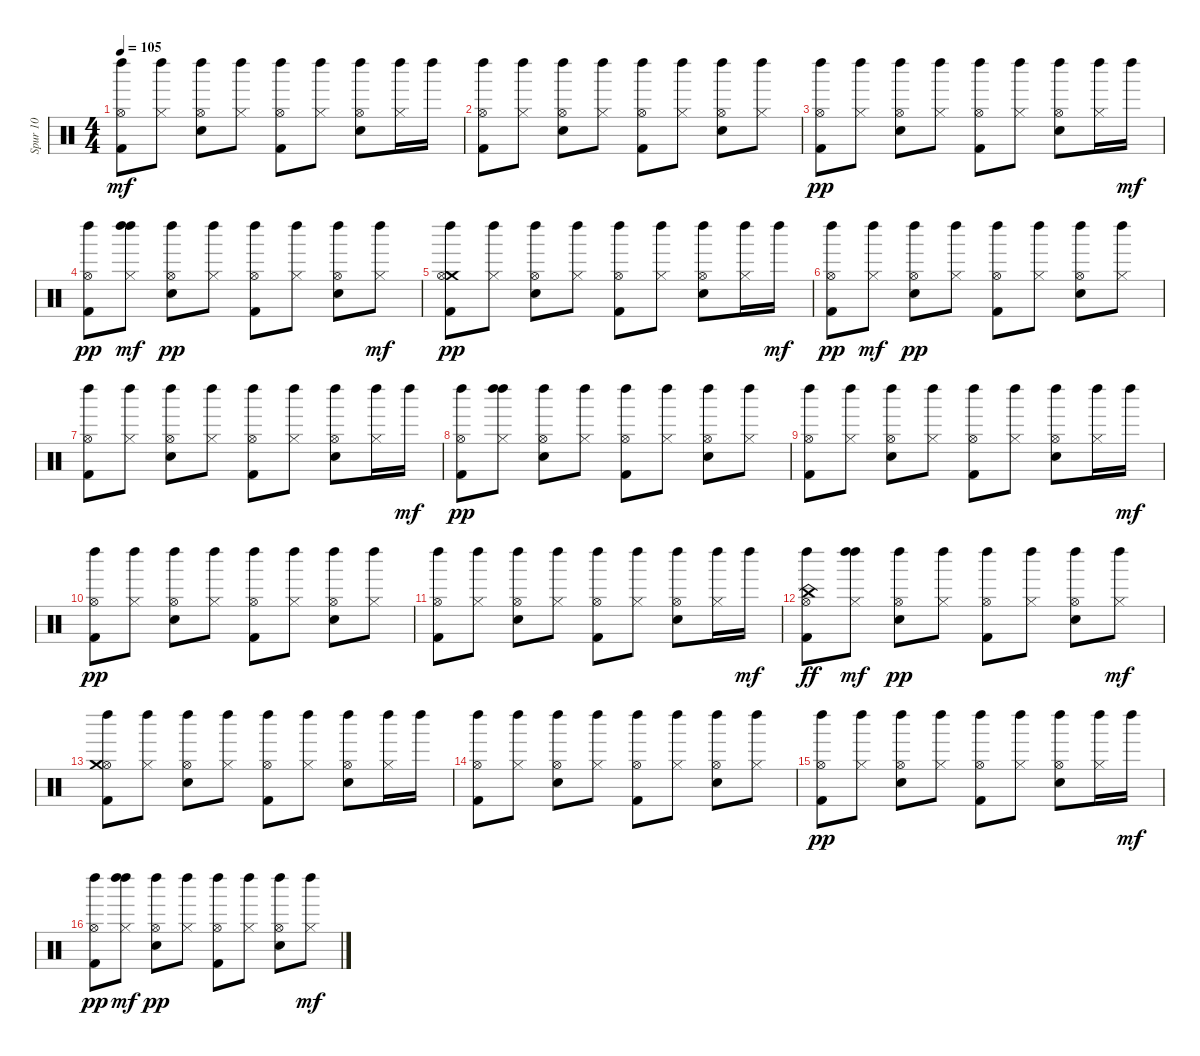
\track ("Spur 10" "Spur 10") {instrument percussion}
\staff {score}
\articulation defaults
\ts (4 4)
\tempo 105
\clef neutral
\ks c
("Hi-Hat (open)" "Left Maraca (hit)" "Kick (hit) 2").8{dy mf} ("Hi-Hat (closed)" "Left Maraca (hit)").8 ("Hi-Hat (open)" "Left Maraca (hit)" "Snare (hit) 2").8 ("Hi-Hat (closed)" "Left Maraca (hit)").8 ("Hi-Hat (open)" "Left Maraca (hit)" "Kick (hit) 2").8 ("Hi-Hat (closed)" "Left Maraca (hit)").8 ("Hi-Hat (open)" "Left Maraca (hit)" "Snare (hit) 2").8 ("Hi-Hat (closed)" "Left Maraca (hit)").16 "Left Maraca (hit)".16 |
("Hi-Hat (open)" "Left Maraca (hit)" "Kick (hit) 2").8 ("Hi-Hat (closed)" "Left Maraca (hit)").8 ("Hi-Hat (open)" "Left Maraca (hit)" "Snare (hit) 2").8 ("Hi-Hat (closed)" "Left Maraca (hit)").8 ("Hi-Hat (open)" "Left Maraca (hit)" "Kick (hit) 2").8 ("Hi-Hat (closed)" "Left Maraca (hit)").8 ("Hi-Hat (open)" "Left Maraca (hit)" "Snare (hit) 2").8 ("Hi-Hat (closed)" "Left Maraca (hit)").8 |
("Left Maraca (hit)" "Hi-Hat (open)" "Kick (hit) 2").8{dy pp} ("Left Maraca (hit)" "Hi-Hat (closed)").8 ("Left Maraca (hit)" "Hi-Hat (open)" "Snare (hit) 2").8 ("Left Maraca (hit)" "Hi-Hat (closed)").8 ("Left Maraca (hit)" "Hi-Hat (open)" "Kick (hit) 2").8 ("Left Maraca (hit)" "Hi-Hat (closed)").8 ("Left Maraca (hit)" "Hi-Hat (open)" "Snare (hit) 2").8 ("Left Maraca (hit)" "Hi-Hat (closed)").16 "Left Maraca (hit)".16{dy mf} |
("Left Maraca (hit)" "Hi-Hat (open)" "Kick (hit) 2").8{dy pp} ("Left Maraca (hit)" "Hi-Hat (closed)" "Left Maraca (hit)").8{dy mf} ("Left Maraca (hit)" "Hi-Hat (open)" "Snare (hit) 2").8{dy pp} ("Left Maraca (hit)" "Hi-Hat (closed)").8 ("Left Maraca (hit)" "Hi-Hat (open)" "Kick (hit) 2").8 ("Left Maraca (hit)" "Hi-Hat (closed)").8 ("Left Maraca (hit)" "Hi-Hat (open)" "Snare (hit) 2").8 ("Hi-Hat (closed)" "Left Maraca (hit)").8{dy mf} |
("Left Maraca (hit)" "Crash medium (hit)" "Hi-Hat (open)" "Kick (hit) 2").8{dy pp} ("Left Maraca (hit)" "Hi-Hat (closed)").8 ("Left Maraca (hit)" "Hi-Hat (open)" "Snare (hit) 2").8 ("Left Maraca (hit)" "Hi-Hat (closed)").8 ("Left Maraca (hit)" "Hi-Hat (open)" "Kick (hit) 2").8 ("Left Maraca (hit)" "Hi-Hat (closed)").8 ("Left Maraca (hit)" "Hi-Hat (open)" "Snare (hit) 2").8 ("Left Maraca (hit)" "Hi-Hat (closed)").16 "Left Maraca (hit)".16{dy mf} |
("Left Maraca (hit)" "Hi-Hat (open)" "Kick (hit) 2").8{dy pp} ("Hi-Hat (closed)" "Left Maraca (hit)").8{dy mf} ("Left Maraca (hit)" "Hi-Hat (open)" "Snare (hit) 2").8{dy pp} ("Left Maraca (hit)" "Hi-Hat (closed)").8 ("Left Maraca (hit)" "Hi-Hat (open)" "Kick (hit) 2").8 ("Left Maraca (hit)" "Hi-Hat (closed)").8 ("Left Maraca (hit)" "Hi-Hat (open)" "Snare (hit) 2").8 ("Left Maraca (hit)" "Hi-Hat (closed)").8 |
("Left Maraca (hit)" "Kick (hit) 2" "Hi-Hat (open)").8 ("Left Maraca (hit)" "Hi-Hat (closed)").8 ("Left Maraca (hit)" "Snare (hit) 2" "Hi-Hat (open)").8 ("Left Maraca (hit)" "Hi-Hat (closed)").8 ("Left Maraca (hit)" "Kick (hit) 2" "Hi-Hat (open)").8 ("Left Maraca (hit)" "Hi-Hat (closed)").8 ("Left Maraca (hit)" "Snare (hit) 2" "Hi-Hat (open)").8 ("Left Maraca (hit)" "Hi-Hat (closed)").16 "Left Maraca (hit)".16{dy mf} |
("Left Maraca (hit)" "Kick (hit) 2" "Hi-Hat (open)").8{dy pp} ("Left Maraca (hit)" "Left Maraca (hit)" "Hi-Hat (closed)").8 ("Left Maraca (hit)" "Snare (hit) 2" "Hi-Hat (open)").8 ("Left Maraca (hit)" "Hi-Hat (closed)").8 ("Left Maraca (hit)" "Kick (hit) 2" "Hi-Hat (open)").8 ("Left Maraca (hit)" "Hi-Hat (closed)").8 ("Left Maraca (hit)" "Snare (hit) 2" "Hi-Hat (open)").8 ("Left Maraca (hit)" "Hi-Hat (closed)").8 |
("Left Maraca (hit)" "Kick (hit) 2" "Hi-Hat (open)").8 ("Left Maraca (hit)" "Hi-Hat (closed)").8 ("Left Maraca (hit)" "Snare (hit) 2" "Hi-Hat (open)").8 ("Left Maraca (hit)" "Hi-Hat (closed)").8 ("Left Maraca (hit)" "Kick (hit) 2" "Hi-Hat (open)").8 ("Left Maraca (hit)" "Hi-Hat (closed)").8 ("Left Maraca (hit)" "Snare (hit) 2" "Hi-Hat (open)").8 ("Left Maraca (hit)" "Hi-Hat (closed)").16 "Left Maraca (hit)".16{dy mf} |
("Left Maraca (hit)" "Kick (hit) 2" "Hi-Hat (open)").8{dy pp} ("Left Maraca (hit)" "Hi-Hat (closed)").8 ("Left Maraca (hit)" "Snare (hit) 2" "Hi-Hat (open)").8 ("Left Maraca (hit)" "Hi-Hat (closed)").8 ("Left Maraca (hit)" "Kick (hit) 2" "Hi-Hat (open)").8 ("Left Maraca (hit)" "Hi-Hat (closed)").8 ("Left Maraca (hit)" "Snare (hit) 2" "Hi-Hat (open)").8 ("Left Maraca (hit)" "Hi-Hat (closed)").8 |
("Left Maraca (hit)" "Hi-Hat (open)" "Kick (hit) 2").8 ("Left Maraca (hit)" "Hi-Hat (closed)").8 ("Left Maraca (hit)" "Hi-Hat (open)" "Snare (hit) 2").8 ("Left Maraca (hit)" "Hi-Hat (closed)").8 ("Left Maraca (hit)" "Hi-Hat (open)" "Kick (hit) 2").8 ("Left Maraca (hit)" "Hi-Hat (closed)").8 ("Left Maraca (hit)" "Hi-Hat (open)" "Snare (hit) 2").8 ("Left Maraca (hit)" "Hi-Hat (closed)").16 "Left Maraca (hit)".16{dy mf} |
("Left Maraca (hit)" "Hi-Hat (open)" "Kick (hit) 2" "China (hit)").8{dy ff} ("Left Maraca (hit)" "Hi-Hat (closed)" "Left Maraca (hit)").8{dy mf} ("Left Maraca (hit)" "Hi-Hat (open)" "Snare (hit) 2").8{dy pp} ("Left Maraca (hit)" "Hi-Hat (closed)").8 ("Left Maraca (hit)" "Hi-Hat (open)" "Kick (hit) 2").8 ("Left Maraca (hit)" "Hi-Hat (closed)").8 ("Left Maraca (hit)" "Hi-Hat (open)" "Snare (hit) 2").8 ("Hi-Hat (closed)" "Left Maraca (hit)").8{dy mf} |
("Hi-Hat (open)" "Left Maraca (hit)" "Kick (hit) 2" "Crash medium (hit)").8 ("Hi-Hat (closed)" "Left Maraca (hit)").8 ("Hi-Hat (open)" "Left Maraca (hit)" "Snare (hit) 2").8 ("Hi-Hat (closed)" "Left Maraca (hit)").8 ("Hi-Hat (open)" "Left Maraca (hit)" "Kick (hit) 2").8 ("Hi-Hat (closed)" "Left Maraca (hit)").8 ("Hi-Hat (open)" "Left Maraca (hit)" "Snare (hit) 2").8 ("Hi-Hat (closed)" "Left Maraca (hit)").16 "Left Maraca (hit)".16 |
("Hi-Hat (open)" "Left Maraca (hit)" "Kick (hit) 2").8 ("Hi-Hat (closed)" "Left Maraca (hit)").8 ("Hi-Hat (open)" "Left Maraca (hit)" "Snare (hit) 2").8 ("Hi-Hat (closed)" "Left Maraca (hit)").8 ("Hi-Hat (open)" "Left Maraca (hit)" "Kick (hit) 2").8 ("Hi-Hat (closed)" "Left Maraca (hit)").8 ("Hi-Hat (open)" "Left Maraca (hit)" "Snare (hit) 2").8 ("Hi-Hat (closed)" "Left Maraca (hit)").8 |
("Left Maraca (hit)" "Hi-Hat (open)" "Kick (hit) 2").8{dy pp} ("Left Maraca (hit)" "Hi-Hat (closed)").8 ("Left Maraca (hit)" "Hi-Hat (open)" "Snare (hit) 2").8 ("Left Maraca (hit)" "Hi-Hat (closed)").8 ("Left Maraca (hit)" "Hi-Hat (open)" "Kick (hit) 2").8 ("Left Maraca (hit)" "Hi-Hat (closed)").8 ("Left Maraca (hit)" "Hi-Hat (open)" "Snare (hit) 2").8 ("Left Maraca (hit)" "Hi-Hat (closed)").16 "Left Maraca (hit)".16{dy mf} |
("Left Maraca (hit)" "Hi-Hat (open)" "Kick (hit) 2").8{dy pp} ("Left Maraca (hit)" "Hi-Hat (closed)" "Left Maraca (hit)").8{dy mf} ("Left Maraca (hit)" "Hi-Hat (open)" "Snare (hit) 2").8{dy pp} ("Left Maraca (hit)" "Hi-Hat (closed)").8 ("Left Maraca (hit)" "Hi-Hat (open)" "Kick (hit) 2").8 ("Left Maraca (hit)" "Hi-Hat (closed)").8 ("Left Maraca (hit)" "Hi-Hat (open)" "Snare (hit) 2").8 ("Hi-Hat (closed)" "Left Maraca (hit)").8{dy mf}
